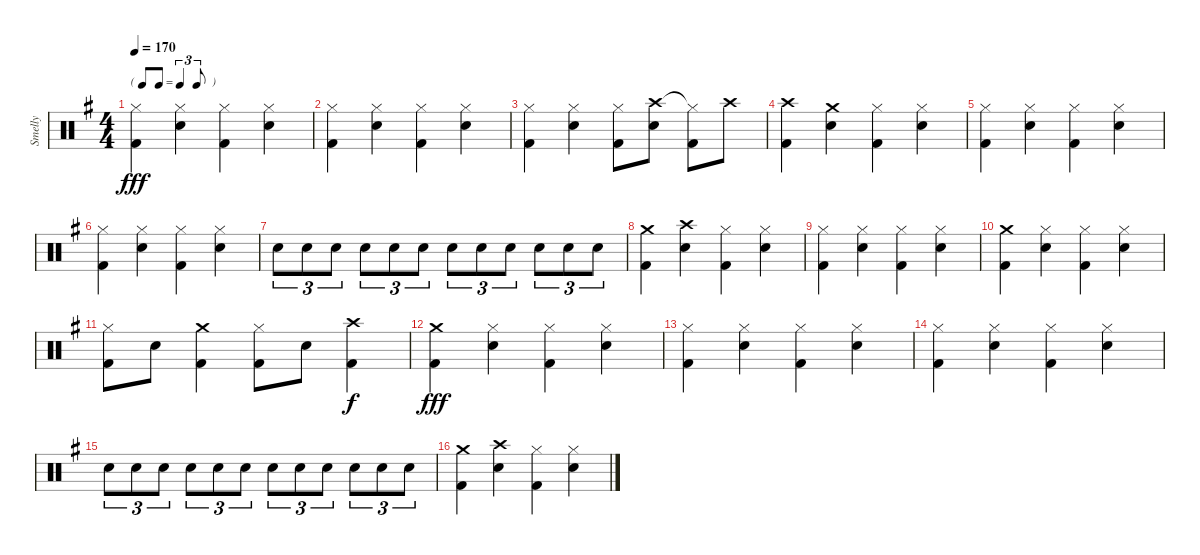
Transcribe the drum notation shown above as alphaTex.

\track ("Smelly" "Smelly") {instrument percussion}
\staff {score}
\articulation defaults
\ts (4 4)
\tf triplet8th
\tempo 170
\clef neutral
\ks eminor
("Hi-Hat (closed)" "Kick (hit) 2").4{dy fff} ("Hi-Hat (closed)" "Electric Snare (hit)").4 ("Hi-Hat (closed)" "Kick (hit) 2").4 ("Hi-Hat (closed)" "Electric Snare (hit)").4 |
("Hi-Hat (closed)" "Kick (hit) 2").4 ("Hi-Hat (closed)" "Electric Snare (hit)").4 ("Hi-Hat (closed)" "Kick (hit) 2").4 ("Hi-Hat (closed)" "Electric Snare (hit)").4 |
("Hi-Hat (closed)" "Kick (hit) 2").4 ("Hi-Hat (closed)" "Electric Snare (hit)").4 ("Hi-Hat (closed)" "Kick (hit) 2").8 ("Crash high (hit)" "Electric Snare (hit)").8 ("Hi-Hat (closed)"{t} "Kick (hit) 2").8 "Crash high (hit)".8 |
("Crash high (hit)" "Kick (hit) 2").4 ("Crash medium (hit)" "Electric Snare (hit)").4 ("Hi-Hat (closed)" "Kick (hit) 2").4 ("Hi-Hat (closed)" "Electric Snare (hit)").4 |
("Hi-Hat (closed)" "Kick (hit) 2").4 ("Hi-Hat (closed)" "Electric Snare (hit)").4 ("Hi-Hat (closed)" "Kick (hit) 2").4 ("Hi-Hat (closed)" "Electric Snare (hit)").4 |
("Hi-Hat (closed)" "Kick (hit) 2").4 ("Hi-Hat (closed)" "Electric Snare (hit)").4 ("Hi-Hat (closed)" "Kick (hit) 2").4 ("Hi-Hat (closed)" "Electric Snare (hit)").4 |
"Electric Snare (hit)".8{tu (3 2)} "Electric Snare (hit)".8{tu (3 2)} "Electric Snare (hit)".8{tu (3 2)} "Electric Snare (hit)".8{tu (3 2)} "Electric Snare (hit)".8{tu (3 2)} "Electric Snare (hit)".8{tu (3 2)} "Electric Snare (hit)".8{tu (3 2)} "Electric Snare (hit)".8{tu (3 2)} "Electric Snare (hit)".8{tu (3 2)} "Electric Snare (hit)".8{tu (3 2)} "Electric Snare (hit)".8{tu (3 2)} "Electric Snare (hit)".8{tu (3 2)} |
("Crash medium (hit)" "Kick (hit) 2").4 ("Crash high (hit)" "Electric Snare (hit)").4 ("Hi-Hat (closed)" "Kick (hit) 2").4 ("Hi-Hat (closed)" "Electric Snare (hit)").4 |
("Hi-Hat (closed)" "Kick (hit) 2").4 ("Hi-Hat (closed)" "Electric Snare (hit)").4 ("Hi-Hat (closed)" "Kick (hit) 2").4 ("Hi-Hat (closed)" "Electric Snare (hit)").4 |
("Crash medium (hit)" "Kick (hit) 2").4 ("Hi-Hat (closed)" "Electric Snare (hit)").4 ("Hi-Hat (closed)" "Kick (hit) 2").4 ("Hi-Hat (closed)" "Electric Snare (hit)").4 |
("Hi-Hat (closed)" "Kick (hit) 2").8 "Electric Snare (hit)".8 ("Crash medium (hit)" "Kick (hit) 2").4 ("Hi-Hat (closed)" "Kick (hit) 2").8 "Electric Snare (hit)".8 ("Crash high (hit)" "Kick (hit) 2").4{dy f} |
("Crash medium (hit)" "Kick (hit) 2").4{dy fff} ("Hi-Hat (closed)" "Electric Snare (hit)").4 ("Hi-Hat (closed)" "Kick (hit) 2").4 ("Hi-Hat (closed)" "Electric Snare (hit)").4 |
("Hi-Hat (closed)" "Kick (hit) 2").4 ("Hi-Hat (closed)" "Electric Snare (hit)").4 ("Hi-Hat (closed)" "Kick (hit) 2").4 ("Hi-Hat (closed)" "Electric Snare (hit)").4 |
("Hi-Hat (closed)" "Kick (hit) 2").4 ("Hi-Hat (closed)" "Electric Snare (hit)").4 ("Hi-Hat (closed)" "Kick (hit) 2").4 ("Hi-Hat (closed)" "Electric Snare (hit)").4 |
"Electric Snare (hit)".8{tu (3 2)} "Electric Snare (hit)".8{tu (3 2)} "Electric Snare (hit)".8{tu (3 2)} "Electric Snare (hit)".8{tu (3 2)} "Electric Snare (hit)".8{tu (3 2)} "Electric Snare (hit)".8{tu (3 2)} "Electric Snare (hit)".8{tu (3 2)} "Electric Snare (hit)".8{tu (3 2)} "Electric Snare (hit)".8{tu (3 2)} "Electric Snare (hit)".8{tu (3 2)} "Electric Snare (hit)".8{tu (3 2)} "Electric Snare (hit)".8{tu (3 2)} |
("Crash medium (hit)" "Kick (hit) 2").4 ("Crash high (hit)" "Electric Snare (hit)").4 ("Hi-Hat (closed)" "Kick (hit) 2").4 ("Hi-Hat (closed)" "Electric Snare (hit)").4
